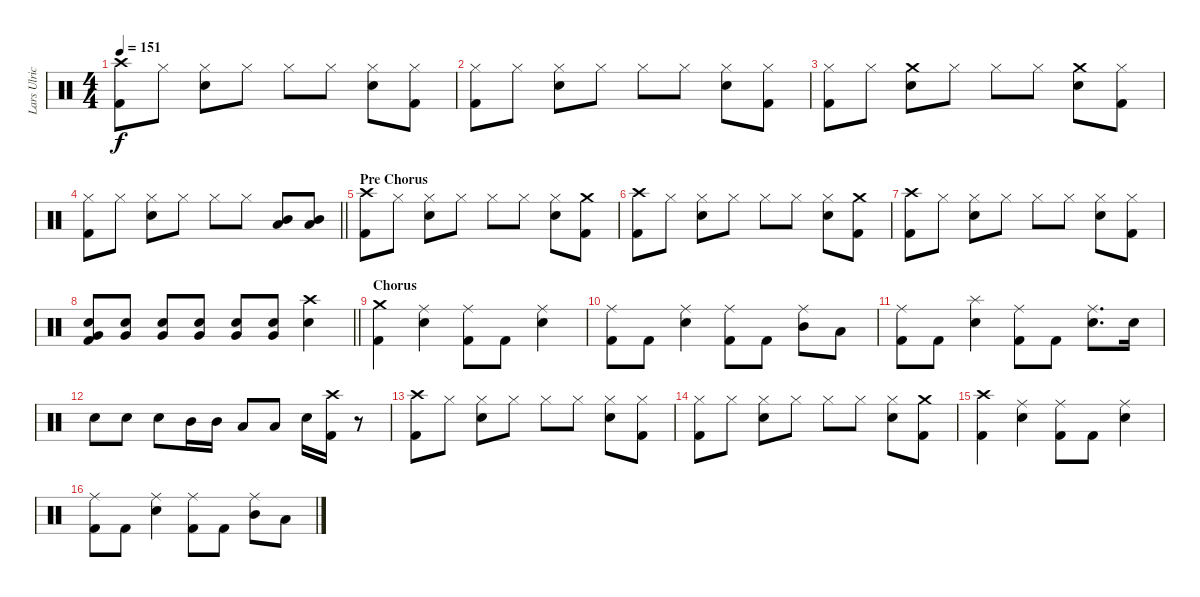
\track ("Lars Ulrich" "Lars Ulric") {instrument percussion}
\staff {score}
\articulation defaults
\ts (4 4)
\tempo 151
\clef neutral
\ks c
("Crash high (hit)" "Kick (hit) 2").8{dy f} "Hi-Hat (closed)".8 ("Hi-Hat (closed)" "Snare (hit) 2").8 "Hi-Hat (closed)".8 "Hi-Hat (closed)".8 "Hi-Hat (closed)".8 ("Hi-Hat (closed)" "Snare (hit) 2").8 ("Hi-Hat (closed)" "Kick (hit) 2").8 |
("Hi-Hat (closed)" "Kick (hit) 2").8 "Hi-Hat (closed)".8 ("Hi-Hat (closed)" "Snare (hit) 2").8 "Hi-Hat (closed)".8 "Hi-Hat (closed)".8 "Hi-Hat (closed)".8 ("Hi-Hat (closed)" "Snare (hit) 2").8 ("Hi-Hat (closed)" "Kick (hit) 2").8 |
("Hi-Hat (closed)" "Kick (hit) 2").8 "Hi-Hat (closed)".8 ("Crash medium (hit)" "Snare (hit) 2").8 "Hi-Hat (closed)".8 "Hi-Hat (closed)".8 "Hi-Hat (closed)".8 ("Crash medium (hit)" "Snare (hit) 2").8 ("Hi-Hat (closed)" "Kick (hit) 2").8 |
\barLineRight lightlight
("Hi-Hat (closed)" "Kick (hit) 2").8 "Hi-Hat (closed)".8 ("Hi-Hat (closed)" "Snare (hit) 2").8 "Hi-Hat (closed)".8 "Hi-Hat (closed)".8 "Hi-Hat (closed)".8 ("Low Tom (hit)" "Mid Tom (hit)").8 ("Low Tom (hit)" "Mid Tom (hit)").8 |
\section ("" "Pre Chorus")
("Crash high (hit)" "Kick (hit) 2").8 "Hi-Hat (closed)".8 ("Hi-Hat (closed)" "Snare (hit) 2").8 "Hi-Hat (closed)".8 "Hi-Hat (closed)".8 "Hi-Hat (closed)".8 ("Hi-Hat (closed)" "Snare (hit) 2").8 ("Crash medium (hit)" "Kick (hit) 2").8 |
("Crash high (hit)" "Kick (hit) 2").8 "Hi-Hat (closed)".8 ("Hi-Hat (closed)" "Snare (hit) 2").8 "Hi-Hat (closed)".8 "Hi-Hat (closed)".8 "Hi-Hat (closed)".8 ("Hi-Hat (closed)" "Snare (hit) 2").8 ("Crash medium (hit)" "Kick (hit) 2").8 |
("Crash high (hit)" "Kick (hit) 2").8 "Hi-Hat (closed)".8 ("Hi-Hat (closed)" "Snare (hit) 2").8 "Hi-Hat (closed)".8 "Hi-Hat (closed)".8 "Hi-Hat (closed)".8 ("Hi-Hat (closed)" "Snare (hit) 2").8 ("Hi-Hat (closed)" "Kick (hit) 2").8 |
\barLineRight lightlight
("Very Low Tom (hit)" "Snare (hit) 2" "Kick (hit) 2").8 ("Very Low Tom (hit)" "Snare (hit) 2").8 ("Very Low Tom (hit)" "Snare (hit) 2").8 ("Very Low Tom (hit)" "Snare (hit) 2").8 ("Very Low Tom (hit)" "Snare (hit) 2").8 ("Very Low Tom (hit)" "Snare (hit) 2").8 ("Crash high (hit)" "Snare (hit) 2").4 |
\section ("" "Chorus")
("Crash medium (hit)" "Kick (hit) 2").4 ("Ride (middle)" "Snare (hit) 2").4 ("Ride (middle)" "Kick (hit) 2").8 "Kick (hit) 2".8 ("Ride (middle)" "Snare (hit) 2").4 |
("Ride (middle)" "Kick (hit) 2").8 "Kick (hit) 2".8 ("Ride (middle)" "Snare (hit) 2").4 ("Ride (middle)" "Kick (hit) 2").8 "Kick (hit) 2".8 ("Ride (middle)" "Mid Tom (hit)").8 "Low Tom (hit)".8 |
("Ride (middle)" "Kick (hit) 2").8 "Kick (hit) 2".8 ("Splash (hit)" "Snare (hit) 2").4 ("Ride (middle)" "Kick (hit) 2").8 "Kick (hit) 2".8 ("Ride (middle)" "Snare (hit) 2").8{d} "Snare (hit) 2".16 |
"Snare (hit) 2".8 "Snare (hit) 2".8 "Snare (hit) 2".8 "Mid Tom (hit)".16 "Mid Tom (hit)".16 "Low Tom (hit)".8 "Low Tom (hit)".8 "Snare (hit) 2".16 ("Crash high (hit)" "Kick (hit) 2").16 r.8 |
("Crash high (hit)" "Kick (hit) 2").8 "Hi-Hat (closed)".8 ("Hi-Hat (closed)" "Snare (hit) 2").8 "Hi-Hat (closed)".8 "Hi-Hat (closed)".8 "Hi-Hat (closed)".8 ("Hi-Hat (closed)" "Snare (hit) 2").8 ("Hi-Hat (closed)" "Kick (hit) 2").8 |
("Hi-Hat (closed)" "Kick (hit) 2").8 "Hi-Hat (closed)".8 ("Hi-Hat (closed)" "Snare (hit) 2").8 "Hi-Hat (closed)".8 "Hi-Hat (closed)".8 "Hi-Hat (closed)".8 ("Hi-Hat (closed)" "Snare (hit) 2").8 ("Crash medium (hit)" "Kick (hit) 2").8 |
("Crash high (hit)" "Kick (hit) 2").4 ("Ride (middle)" "Snare (hit) 2").4 ("Ride (middle)" "Kick (hit) 2").8 "Kick (hit) 2".8 ("Ride (middle)" "Snare (hit) 2").4 |
("Ride (middle)" "Kick (hit) 2").8 "Kick (hit) 2".8 ("Ride (middle)" "Snare (hit) 2").4 ("Ride (middle)" "Kick (hit) 2").8 "Kick (hit) 2".8 ("Ride (middle)" "Mid Tom (hit)").8 "Low Tom (hit)".8
